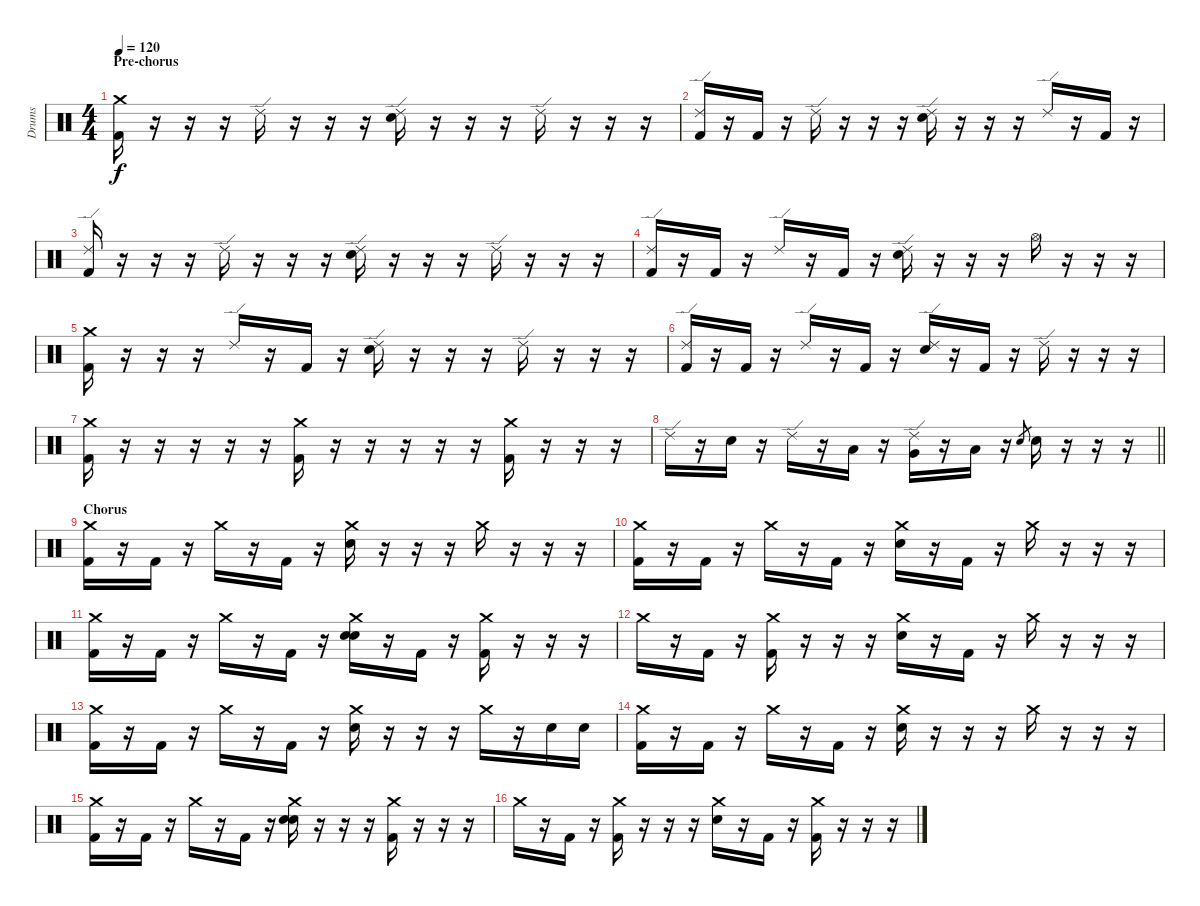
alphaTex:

\track ("Drums" "Drums") {instrument percussion}
\staff {score}
\articulation defaults
\ts (4 4)
\section ("" "Pre-chorus")
\tempo 120
\clef neutral
\ks c
("Crash medium (hit)" "Kick (hit) 2").16{dy f} r.16 r.16 r.16 "Ride (edge) 2".16 r.16 r.16 r.16 ("Ride (edge) 2" "Electric Snare (hit)").16 r.16 r.16 r.16 "Ride (edge) 2".16 r.16 r.16 r.16 |
("Ride (edge) 2" "Kick (hit) 2").16 r.16 "Kick (hit) 2".16 r.16 "Ride (edge) 2".16 r.16 r.16 r.16 ("Ride (edge) 2" "Electric Snare (hit)").16 r.16 r.16 r.16 "Ride (edge) 2".16 r.16 "Kick (hit) 2".16 r.16 |
("Ride (edge) 2" "Kick (hit) 2").16 r.16 r.16 r.16 "Ride (edge) 2".16 r.16 r.16 r.16 ("Ride (edge) 2" "Electric Snare (hit)").16 r.16 r.16 r.16 "Ride (edge) 2".16 r.16 r.16 r.16 |
("Ride (edge) 2" "Kick (hit) 2").16 r.16 "Kick (hit) 2".16 r.16 "Ride (edge) 2".16 r.16 "Kick (hit) 2".16 r.16 ("Ride (edge) 2" "Electric Snare (hit)").16 r.16 r.16 r.16 "Hi-Hat (open)".16 r.16 r.16 r.16 |
("Crash medium (hit)" "Kick (hit) 2").16 r.16 r.16 r.16 "Ride (edge) 2".16 r.16 "Kick (hit) 2".16 r.16 ("Ride (edge) 2" "Electric Snare (hit)").16 r.16 r.16 r.16 "Ride (edge) 2".16 r.16 r.16 r.16 |
("Ride (edge) 2" "Kick (hit) 2").16 r.16 "Kick (hit) 2".16 r.16 "Ride (edge) 2".16 r.16 "Kick (hit) 2".16 r.16 ("Ride (edge) 2" "Electric Snare (hit)").16 r.16 "Kick (hit) 2".16 r.16 "Ride (edge) 2".16 r.16 r.16 r.16 |
("Crash medium (hit)" "Kick (hit) 2").16 r.16 r.16 r.16 r.16 r.16 ("Crash medium (hit)" "Kick (hit) 2").16 r.16 r.16 r.16 r.16 r.16 ("Crash medium (hit)" "Kick (hit) 2").16 r.16 r.16 r.16 |
\barLineRight lightlight "Ride (edge) 2".16
r.16 "Electric Snare (hit)".16 r.16 "Ride (edge) 2".16 r.16 "Low Tom (hit)".16 r.16 ("Ride (edge) 2" "Very Low Tom (hit)").16 r.16 "Low Floor Tom (hit)".16 r.16 "Electric Snare (hit)".8{gr} "Electric Snare (hit)".16 r.16 r.16 r.16 |
\section ("" "Chorus")
("Crash medium (hit)" "Kick (hit) 2").16 r.16 "Kick (hit) 2".16 r.16 "Crash medium (hit)".16 r.16 "Kick (hit) 2".16 r.16 ("Crash medium (hit)" "Electric Snare (hit)").16 r.16 r.16 r.16 "Crash medium (hit)".16 r.16 r.16 r.16 |
("Crash medium (hit)" "Kick (hit) 2").16 r.16 "Kick (hit) 2".16 r.16 "Crash medium (hit)".16 r.16 "Kick (hit) 2".16 r.16 ("Crash medium (hit)" "Electric Snare (hit)").16 r.16 "Kick (hit) 2".16 r.16 "Crash medium (hit)".16 r.16 r.16 r.16 |
("Crash medium (hit)" "Kick (hit) 2").16 r.16 "Kick (hit) 2".16 r.16 "Crash medium (hit)".16 r.16 "Kick (hit) 2".16 r.16 ("Electric Snare (hit)" "Crash medium (hit)" "Electric Snare (hit)").16 r.16 "Kick (hit) 2".16 r.16 ("Crash medium (hit)" "Kick (hit) 2").16 r.16 r.16 r.16 |
"Crash medium (hit)".16 r.16 "Kick (hit) 2".16 r.16 ("Crash medium (hit)" "Kick (hit) 2").16 r.16 r.16 r.16 ("Crash medium (hit)" "Electric Snare (hit)").16 r.16 "Kick (hit) 2".16 r.16 "Crash medium (hit)".16 r.16 r.16 r.16 |
("Crash medium (hit)" "Kick (hit) 2").16 r.16 "Kick (hit) 2".16 r.16 "Crash medium (hit)".16 r.16 "Kick (hit) 2".16 r.16 ("Crash medium (hit)" "Electric Snare (hit)").16 r.16 r.16 r.16 "Crash medium (hit)".16 r.16 "Electric Snare (hit)".16 "Electric Snare (hit)".16 |
("Crash medium (hit)" "Kick (hit) 2").16 r.16 "Kick (hit) 2".16 r.16 "Crash medium (hit)".16 r.16 "Kick (hit) 2".16 r.16 ("Crash medium (hit)" "Electric Snare (hit)").16 r.16 r.16 r.16 "Crash medium (hit)".16 r.16 r.16 r.16 |
("Crash medium (hit)" "Kick (hit) 2").16 r.16 "Kick (hit) 2".16 r.16 "Crash medium (hit)".16 r.16 "Kick (hit) 2".16 r.16 ("Electric Snare (hit)" "Crash medium (hit)" "Electric Snare (hit)").16 r.16 r.16 r.16 ("Crash medium (hit)" "Kick (hit) 2").16 r.16 r.16 r.16 |
"Crash medium (hit)".16 r.16 "Kick (hit) 2".16 r.16 ("Crash medium (hit)" "Kick (hit) 2").16 r.16 r.16 r.16 ("Crash medium (hit)" "Electric Snare (hit)").16 r.16 "Kick (hit) 2".16 r.16 ("Crash medium (hit)" "Kick (hit) 2").16 r.16 r.16 r.16
